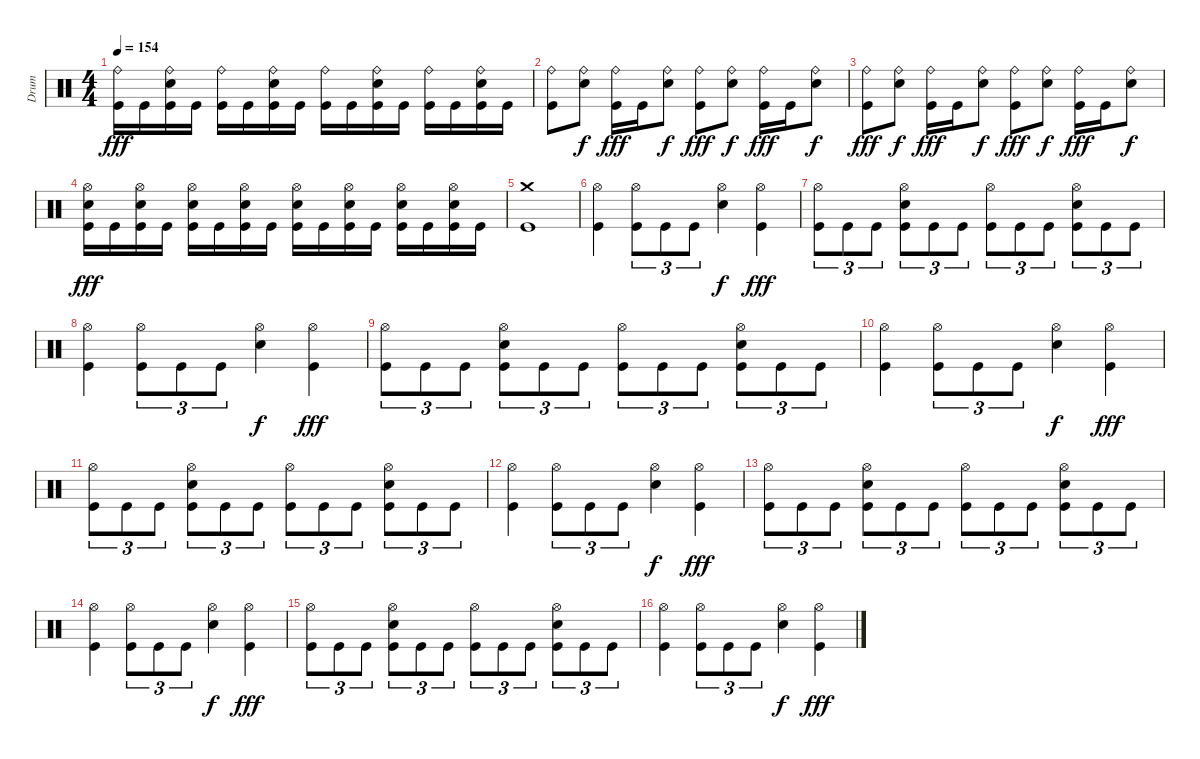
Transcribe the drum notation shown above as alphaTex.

\track ("Drum" "Drum") {instrument percussion}
\staff {score}
\articulation defaults
\ts (4 4)
\tempo 154
\clef neutral
\ks c
("Ride (bell)" "Kick (hit)").16{dy fff} "Kick (hit)".16 ("Ride (bell)" "Snare (hit) 2" "Kick (hit)").16 "Kick (hit)".16 ("Ride (bell)" "Kick (hit)").16 "Kick (hit)".16 ("Ride (bell)" "Snare (hit) 2" "Kick (hit)").16 "Kick (hit)".16 ("Ride (bell)" "Kick (hit)").16 "Kick (hit)".16 ("Ride (bell)" "Snare (hit) 2" "Kick (hit)").16 "Kick (hit)".16 ("Ride (bell)" "Kick (hit)").16 "Kick (hit)".16 ("Ride (bell)" "Snare (hit) 2" "Kick (hit)").16 "Kick (hit)".16 |
("Ride (bell)" "Kick (hit)").8 ("Ride (bell)" "Snare (hit) 2").8{dy f} ("Ride (bell)" "Kick (hit)").16{dy fff} "Kick (hit)".16 ("Ride (bell)" "Snare (hit) 2").8{dy f} ("Ride (bell)" "Kick (hit)").8{dy fff} ("Ride (bell)" "Snare (hit) 2").8{dy f} ("Ride (bell)" "Kick (hit)").16{dy fff} "Kick (hit)".16 ("Ride (bell)" "Snare (hit) 2").8{dy f} |
("Ride (bell)" "Kick (hit)").8{dy fff} ("Ride (bell)" "Snare (hit) 2").8{dy f} ("Ride (bell)" "Kick (hit)").16{dy fff} "Kick (hit)".16 ("Ride (bell)" "Snare (hit) 2").8{dy f} ("Ride (bell)" "Kick (hit)").8{dy fff} ("Ride (bell)" "Snare (hit) 2").8{dy f} ("Ride (bell)" "Kick (hit)").16{dy fff} "Kick (hit)".16 ("Ride (bell)" "Snare (hit) 2").8{dy f} |
("Hi-Hat (open)" "Snare (hit) 2" "Kick (hit)").16{dy fff} "Kick (hit)".16 ("Hi-Hat (open)" "Snare (hit) 2" "Kick (hit)").16 "Kick (hit)".16 ("Hi-Hat (open)" "Snare (hit) 2" "Kick (hit)").16 "Kick (hit)".16 ("Hi-Hat (open)" "Snare (hit) 2" "Kick (hit)").16 "Kick (hit)".16 ("Hi-Hat (open)" "Snare (hit) 2" "Kick (hit)").16 "Kick (hit)".16 ("Hi-Hat (open)" "Snare (hit) 2" "Kick (hit)").16 "Kick (hit)".16 ("Hi-Hat (open)" "Snare (hit) 2" "Kick (hit)").16 "Kick (hit)".16 ("Hi-Hat (open)" "Snare (hit) 2" "Kick (hit)").16 "Kick (hit)".16 |
("Crash medium (hit)" "Kick (hit)").1 |
("Hi-Hat (open)" "Kick (hit)").4 ("Hi-Hat (open)" "Kick (hit)").8{tu (3 2)} "Kick (hit)".8{tu (3 2)} "Kick (hit)".8{tu (3 2)} ("Hi-Hat (open)" "Snare (hit) 2").4{dy f} ("Hi-Hat (open)" "Kick (hit)").4{dy fff} |
("Hi-Hat (open)" "Kick (hit)").8{tu (3 2)} "Kick (hit)".8{tu (3 2)} "Kick (hit)".8{tu (3 2)} ("Hi-Hat (open)" "Snare (hit) 2" "Kick (hit)").8{tu (3 2)} "Kick (hit)".8{tu (3 2)} "Kick (hit)".8{tu (3 2)} ("Hi-Hat (open)" "Kick (hit)").8{tu (3 2)} "Kick (hit)".8{tu (3 2)} "Kick (hit)".8{tu (3 2)} ("Hi-Hat (open)" "Snare (hit) 2" "Kick (hit)").8{tu (3 2)} "Kick (hit)".8{tu (3 2)} "Kick (hit)".8{tu (3 2)} |
("Hi-Hat (open)" "Kick (hit)").4 ("Hi-Hat (open)" "Kick (hit)").8{tu (3 2)} "Kick (hit)".8{tu (3 2)} "Kick (hit)".8{tu (3 2)} ("Hi-Hat (open)" "Snare (hit) 2").4{dy f} ("Hi-Hat (open)" "Kick (hit)").4{dy fff} |
("Hi-Hat (open)" "Kick (hit)").8{tu (3 2)} "Kick (hit)".8{tu (3 2)} "Kick (hit)".8{tu (3 2)} ("Hi-Hat (open)" "Snare (hit) 2" "Kick (hit)").8{tu (3 2)} "Kick (hit)".8{tu (3 2)} "Kick (hit)".8{tu (3 2)} ("Hi-Hat (open)" "Kick (hit)").8{tu (3 2)} "Kick (hit)".8{tu (3 2)} "Kick (hit)".8{tu (3 2)} ("Hi-Hat (open)" "Snare (hit) 2" "Kick (hit)").8{tu (3 2)} "Kick (hit)".8{tu (3 2)} "Kick (hit)".8{tu (3 2)} |
("Hi-Hat (open)" "Kick (hit)").4 ("Hi-Hat (open)" "Kick (hit)").8{tu (3 2)} "Kick (hit)".8{tu (3 2)} "Kick (hit)".8{tu (3 2)} ("Hi-Hat (open)" "Snare (hit) 2").4{dy f} ("Hi-Hat (open)" "Kick (hit)").4{dy fff} |
("Hi-Hat (open)" "Kick (hit)").8{tu (3 2)} "Kick (hit)".8{tu (3 2)} "Kick (hit)".8{tu (3 2)} ("Hi-Hat (open)" "Snare (hit) 2" "Kick (hit)").8{tu (3 2)} "Kick (hit)".8{tu (3 2)} "Kick (hit)".8{tu (3 2)} ("Hi-Hat (open)" "Kick (hit)").8{tu (3 2)} "Kick (hit)".8{tu (3 2)} "Kick (hit)".8{tu (3 2)} ("Hi-Hat (open)" "Snare (hit) 2" "Kick (hit)").8{tu (3 2)} "Kick (hit)".8{tu (3 2)} "Kick (hit)".8{tu (3 2)} |
("Hi-Hat (open)" "Kick (hit)").4 ("Hi-Hat (open)" "Kick (hit)").8{tu (3 2)} "Kick (hit)".8{tu (3 2)} "Kick (hit)".8{tu (3 2)} ("Hi-Hat (open)" "Snare (hit) 2").4{dy f} ("Hi-Hat (open)" "Kick (hit)").4{dy fff} |
("Hi-Hat (open)" "Kick (hit)").8{tu (3 2)} "Kick (hit)".8{tu (3 2)} "Kick (hit)".8{tu (3 2)} ("Hi-Hat (open)" "Snare (hit) 2" "Kick (hit)").8{tu (3 2)} "Kick (hit)".8{tu (3 2)} "Kick (hit)".8{tu (3 2)} ("Hi-Hat (open)" "Kick (hit)").8{tu (3 2)} "Kick (hit)".8{tu (3 2)} "Kick (hit)".8{tu (3 2)} ("Hi-Hat (open)" "Snare (hit) 2" "Kick (hit)").8{tu (3 2)} "Kick (hit)".8{tu (3 2)} "Kick (hit)".8{tu (3 2)} |
("Hi-Hat (open)" "Kick (hit)").4 ("Hi-Hat (open)" "Kick (hit)").8{tu (3 2)} "Kick (hit)".8{tu (3 2)} "Kick (hit)".8{tu (3 2)} ("Hi-Hat (open)" "Snare (hit) 2").4{dy f} ("Hi-Hat (open)" "Kick (hit)").4{dy fff} |
("Hi-Hat (open)" "Kick (hit)").8{tu (3 2)} "Kick (hit)".8{tu (3 2)} "Kick (hit)".8{tu (3 2)} ("Hi-Hat (open)" "Snare (hit) 2" "Kick (hit)").8{tu (3 2)} "Kick (hit)".8{tu (3 2)} "Kick (hit)".8{tu (3 2)} ("Hi-Hat (open)" "Kick (hit)").8{tu (3 2)} "Kick (hit)".8{tu (3 2)} "Kick (hit)".8{tu (3 2)} ("Hi-Hat (open)" "Snare (hit) 2" "Kick (hit)").8{tu (3 2)} "Kick (hit)".8{tu (3 2)} "Kick (hit)".8{tu (3 2)} |
("Hi-Hat (open)" "Kick (hit)").4 ("Hi-Hat (open)" "Kick (hit)").8{tu (3 2)} "Kick (hit)".8{tu (3 2)} "Kick (hit)".8{tu (3 2)} ("Hi-Hat (open)" "Snare (hit) 2").4{dy f} ("Hi-Hat (open)" "Kick (hit)").4{dy fff}
